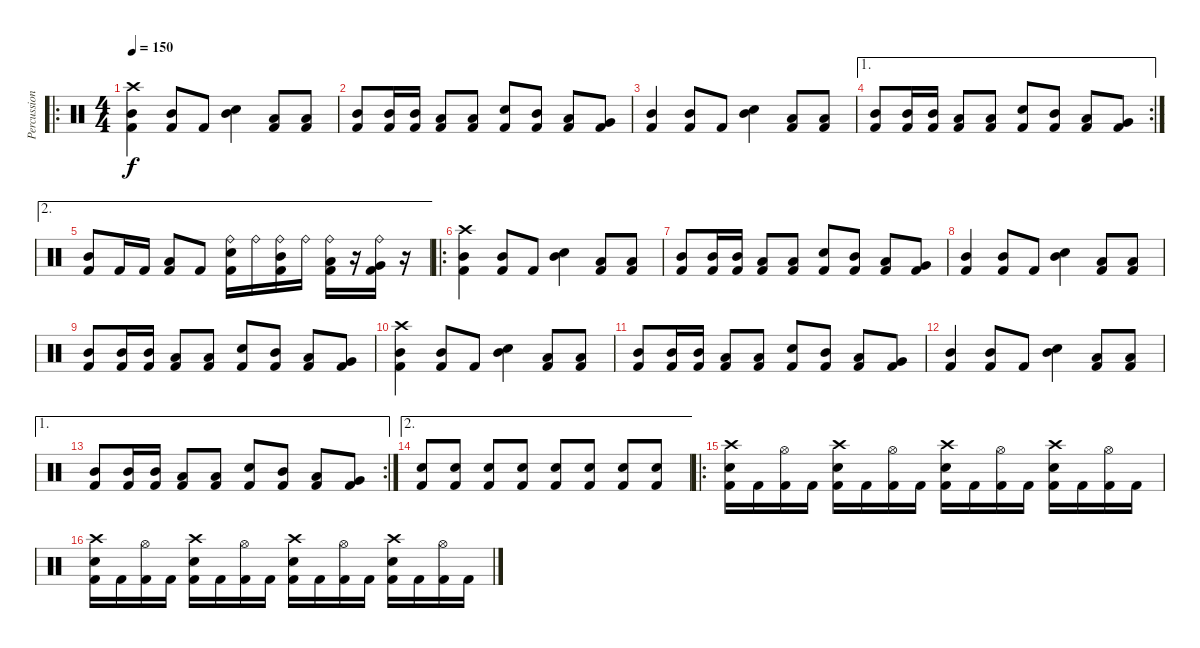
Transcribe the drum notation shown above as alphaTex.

\track ("Percussion" "Percussion") {instrument percussion}
\staff {score}
\articulation defaults
\ro
\ts (4 4)
\tempo 150
\clef neutral
\ks c
("Crash high (hit)" "Mid Tom (hit)" "Kick (hit) 2").4{dy f} ("Mid Tom (hit)" "Kick (hit) 2").8 "Kick (hit) 2".8 ("Mid Tom (hit)" "Electric Snare (hit)").4 ("Low Tom (hit)" "Kick (hit) 2").8 ("Low Tom (hit)" "Kick (hit) 2").8 |
("Mid Tom (hit)" "Kick (hit) 2").8 ("Mid Tom (hit)" "Kick (hit) 2").16 ("Mid Tom (hit)" "Kick (hit) 2").16 ("Low Tom (hit)" "Kick (hit) 2").8 ("Low Tom (hit)" "Kick (hit) 2").8 ("Electric Snare (hit)" "Kick (hit) 2").8 ("Mid Tom (hit)" "Kick (hit) 2").8 ("Low Tom (hit)" "Kick (hit) 2").8 ("Very Low Tom (hit)" "Kick (hit) 2").8 |
("Mid Tom (hit)" "Kick (hit) 2").4 ("Mid Tom (hit)" "Kick (hit) 2").8 "Kick (hit) 2".8 ("Mid Tom (hit)" "Electric Snare (hit)").4 ("Low Tom (hit)" "Kick (hit) 2").8 ("Low Tom (hit)" "Kick (hit) 2").8 |
\ae 1
\rc 2
("Mid Tom (hit)" "Kick (hit) 2").8 ("Mid Tom (hit)" "Kick (hit) 2").16 ("Mid Tom (hit)" "Kick (hit) 2").16 ("Low Tom (hit)" "Kick (hit) 2").8 ("Low Tom (hit)" "Kick (hit) 2").8 ("Electric Snare (hit)" "Kick (hit) 2").8 ("Mid Tom (hit)" "Kick (hit) 2").8 ("Low Tom (hit)" "Kick (hit) 2").8 ("Very Low Tom (hit)" "Kick (hit) 2").8 |
\ae 2
("Mid Tom (hit)" "Kick (hit) 2").8 "Kick (hit) 2".16 "Kick (hit) 2".16 ("Low Tom (hit)" "Kick (hit) 2").8 "Kick (hit) 2".8 ("Ride (bell)" "Electric Snare (hit)" "Kick (hit) 2").16 "Ride (bell)".16 ("Ride (bell)" "Mid Tom (hit)" "Kick (hit) 2").16 "Ride (bell)".16 ("Ride (bell)" "Low Tom (hit)" "Kick (hit) 2").16 r.16 ("Ride (bell)" "Very Low Tom (hit)" "Kick (hit) 2").16 r.16 |
\ro
("Crash high (hit)" "Mid Tom (hit)" "Kick (hit) 2").4 ("Mid Tom (hit)" "Kick (hit) 2").8 "Kick (hit) 2".8 ("Mid Tom (hit)" "Electric Snare (hit)").4 ("Low Tom (hit)" "Kick (hit) 2").8 ("Low Tom (hit)" "Kick (hit) 2").8 |
("Mid Tom (hit)" "Kick (hit) 2").8 ("Mid Tom (hit)" "Kick (hit) 2").16 ("Mid Tom (hit)" "Kick (hit) 2").16 ("Low Tom (hit)" "Kick (hit) 2").8 ("Low Tom (hit)" "Kick (hit) 2").8 ("Electric Snare (hit)" "Kick (hit) 2").8 ("Mid Tom (hit)" "Kick (hit) 2").8 ("Low Tom (hit)" "Kick (hit) 2").8 ("Very Low Tom (hit)" "Kick (hit) 2").8 |
("Mid Tom (hit)" "Kick (hit) 2").4 ("Mid Tom (hit)" "Kick (hit) 2").8 "Kick (hit) 2".8 ("Mid Tom (hit)" "Electric Snare (hit)").4 ("Low Tom (hit)" "Kick (hit) 2").8 ("Low Tom (hit)" "Kick (hit) 2").8 |
("Mid Tom (hit)" "Kick (hit) 2").8 ("Mid Tom (hit)" "Kick (hit) 2").16 ("Mid Tom (hit)" "Kick (hit) 2").16 ("Low Tom (hit)" "Kick (hit) 2").8 ("Low Tom (hit)" "Kick (hit) 2").8 ("Electric Snare (hit)" "Kick (hit) 2").8 ("Mid Tom (hit)" "Kick (hit) 2").8 ("Low Tom (hit)" "Kick (hit) 2").8 ("Very Low Tom (hit)" "Kick (hit) 2").8 |
("Crash high (hit)" "Mid Tom (hit)" "Kick (hit) 2").4 ("Mid Tom (hit)" "Kick (hit) 2").8 "Kick (hit) 2".8 ("Mid Tom (hit)" "Electric Snare (hit)").4 ("Low Tom (hit)" "Kick (hit) 2").8 ("Low Tom (hit)" "Kick (hit) 2").8 |
("Mid Tom (hit)" "Kick (hit) 2").8 ("Mid Tom (hit)" "Kick (hit) 2").16 ("Mid Tom (hit)" "Kick (hit) 2").16 ("Low Tom (hit)" "Kick (hit) 2").8 ("Low Tom (hit)" "Kick (hit) 2").8 ("Electric Snare (hit)" "Kick (hit) 2").8 ("Mid Tom (hit)" "Kick (hit) 2").8 ("Low Tom (hit)" "Kick (hit) 2").8 ("Very Low Tom (hit)" "Kick (hit) 2").8 |
("Mid Tom (hit)" "Kick (hit) 2").4 ("Mid Tom (hit)" "Kick (hit) 2").8 "Kick (hit) 2".8 ("Mid Tom (hit)" "Electric Snare (hit)").4 ("Low Tom (hit)" "Kick (hit) 2").8 ("Low Tom (hit)" "Kick (hit) 2").8 |
\ae 1
\rc 2
("Mid Tom (hit)" "Kick (hit) 2").8 ("Mid Tom (hit)" "Kick (hit) 2").16 ("Mid Tom (hit)" "Kick (hit) 2").16 ("Low Tom (hit)" "Kick (hit) 2").8 ("Low Tom (hit)" "Kick (hit) 2").8 ("Electric Snare (hit)" "Kick (hit) 2").8 ("Mid Tom (hit)" "Kick (hit) 2").8 ("Low Tom (hit)" "Kick (hit) 2").8 ("Very Low Tom (hit)" "Kick (hit) 2").8 |
\ae 2
("Electric Snare (hit)" "Kick (hit) 2").8 ("Electric Snare (hit)" "Kick (hit) 2").8 ("Electric Snare (hit)" "Kick (hit) 2").8 ("Electric Snare (hit)" "Kick (hit) 2").8 ("Electric Snare (hit)" "Kick (hit) 2").8 ("Electric Snare (hit)" "Kick (hit) 2").8 ("Electric Snare (hit)" "Kick (hit) 2").8 ("Electric Snare (hit)" "Kick (hit) 2").8 |
\ro
("Crash high (hit)" "Electric Snare (hit)" "Kick (hit) 2").16 "Kick (hit) 2".16 ("Hi-Hat (open)" "Kick (hit) 2").16 "Kick (hit) 2".16 ("Crash high (hit)" "Electric Snare (hit)" "Kick (hit) 2").16 "Kick (hit) 2".16 ("Hi-Hat (open)" "Kick (hit) 2").16 "Kick (hit) 2".16 ("Crash high (hit)" "Electric Snare (hit)" "Kick (hit) 2").16 "Kick (hit) 2".16 ("Hi-Hat (open)" "Kick (hit) 2").16 "Kick (hit) 2".16 ("Crash high (hit)" "Electric Snare (hit)" "Kick (hit) 2").16 "Kick (hit) 2".16 ("Hi-Hat (open)" "Kick (hit) 2").16 "Kick (hit) 2".16 |
("Crash high (hit)" "Electric Snare (hit)" "Kick (hit) 2").16 "Kick (hit) 2".16 ("Hi-Hat (open)" "Kick (hit) 2").16 "Kick (hit) 2".16 ("Crash high (hit)" "Electric Snare (hit)" "Kick (hit) 2").16 "Kick (hit) 2".16 ("Hi-Hat (open)" "Kick (hit) 2").16 "Kick (hit) 2".16 ("Crash high (hit)" "Electric Snare (hit)" "Kick (hit) 2").16 "Kick (hit) 2".16 ("Hi-Hat (open)" "Kick (hit) 2").16 "Kick (hit) 2".16 ("Crash high (hit)" "Electric Snare (hit)" "Kick (hit) 2").16 "Kick (hit) 2".16 ("Hi-Hat (open)" "Kick (hit) 2").16 "Kick (hit) 2".16
